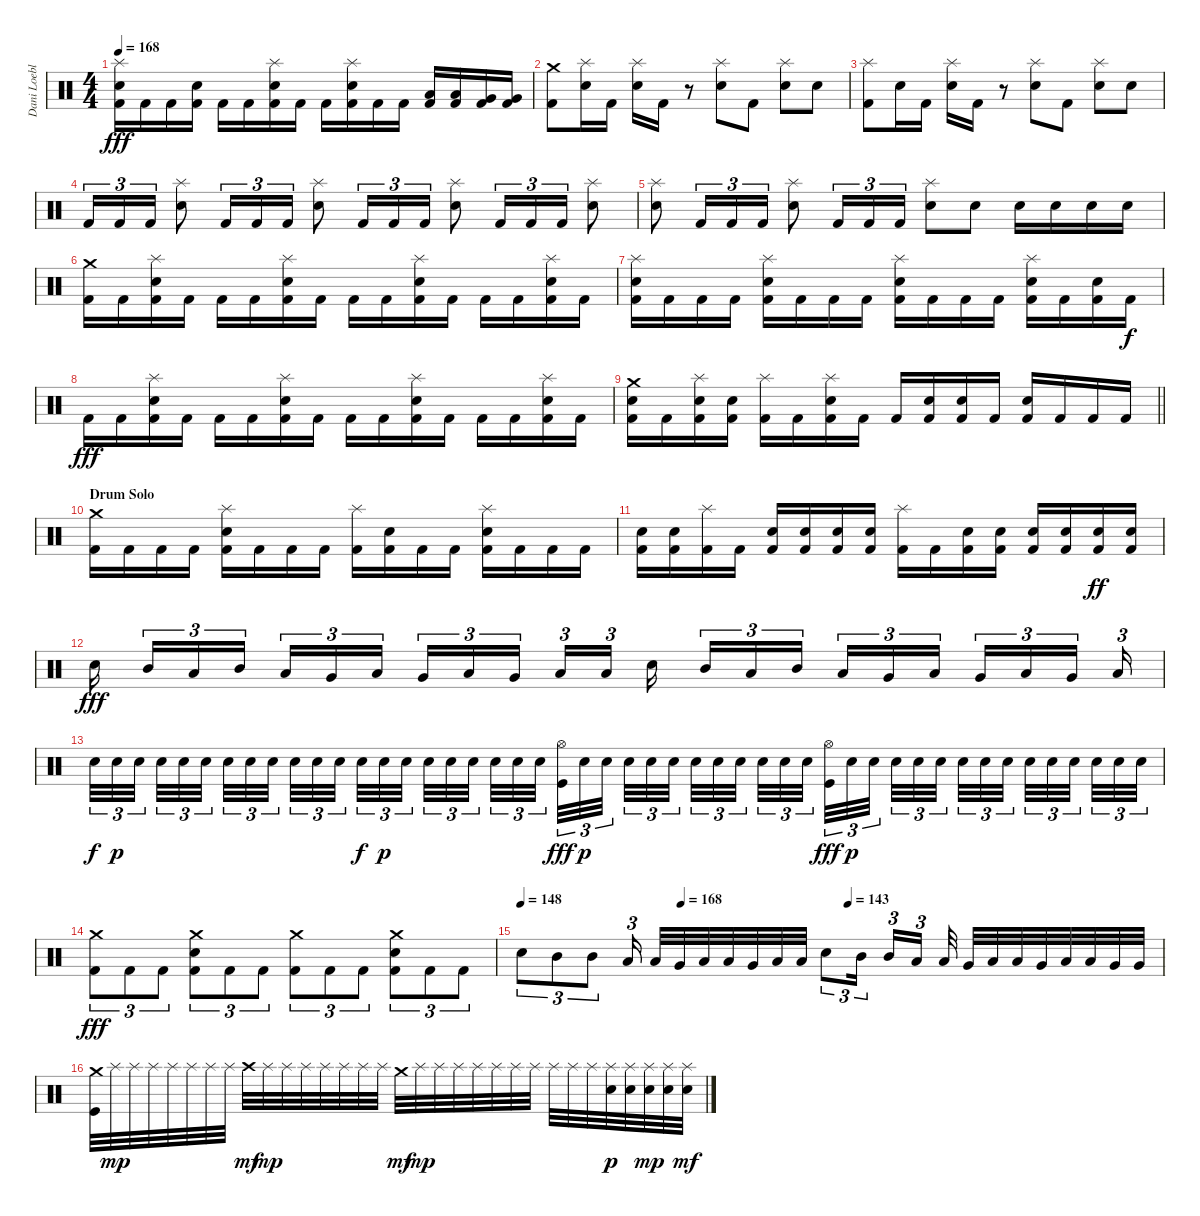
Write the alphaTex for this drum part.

\track ("Dani Loeble" "Dani Loebl") {instrument percussion}
\staff {score}
\articulation defaults
\ts (4 4)
\tempo 168
\clef neutral
\ks c
("Splash (hit)" "Electric Snare (hit)" "Kick (hit) 2").16{dy fff} "Kick (hit) 2".16 "Kick (hit) 2".16 ("Electric Snare (hit)" "Kick (hit) 2").16 "Kick (hit) 2".16 "Kick (hit) 2".16 ("Splash (hit)" "Electric Snare (hit)" "Kick (hit) 2").16 "Kick (hit) 2".16 "Kick (hit) 2".16 ("Splash (hit)" "Electric Snare (hit)" "Kick (hit) 2").16 "Kick (hit) 2".16 "Kick (hit) 2".16 ("Low Tom (hit)" "Kick (hit) 2").16 ("Low Tom (hit)" "Kick (hit) 2").16 ("Very Low Tom (hit)" "Kick (hit) 2").16 ("Very Low Tom (hit)" "Kick (hit) 2").16 |
("Crash medium (hit)" "Kick (hit) 2").8 ("Splash (hit)" "Electric Snare (hit)").16 "Kick (hit) 2".16 ("Splash (hit)" "Electric Snare (hit)").16 "Kick (hit) 2".16 r.8 ("Splash (hit)" "Electric Snare (hit)").8 "Kick (hit) 2".8 ("Splash (hit)" "Electric Snare (hit)").8 "Electric Snare (hit)".8 |
("Splash (hit)" "Kick (hit) 2").8 "Electric Snare (hit)".16 "Kick (hit) 2".16 ("Splash (hit)" "Electric Snare (hit)").16 "Kick (hit) 2".16 r.8 ("Splash (hit)" "Electric Snare (hit)").8 "Kick (hit) 2".8 ("Splash (hit)" "Electric Snare (hit)").8 "Electric Snare (hit)".8 |
"Kick (hit) 2".16{tu (3 2)} "Kick (hit) 2".16{tu (3 2)} "Kick (hit) 2".16{tu (3 2)} ("Splash (hit)" "Electric Snare (hit)").8 "Kick (hit) 2".16{tu (3 2)} "Kick (hit) 2".16{tu (3 2)} "Kick (hit) 2".16{tu (3 2)} ("Splash (hit)" "Electric Snare (hit)").8 "Kick (hit) 2".16{tu (3 2)} "Kick (hit) 2".16{tu (3 2)} "Kick (hit) 2".16{tu (3 2)} ("Splash (hit)" "Electric Snare (hit)").8 "Kick (hit) 2".16{tu (3 2)} "Kick (hit) 2".16{tu (3 2)} "Kick (hit) 2".16{tu (3 2)} ("Splash (hit)" "Electric Snare (hit)").8 |
("Splash (hit)" "Electric Snare (hit)").8 "Kick (hit) 2".16{tu (3 2)} "Kick (hit) 2".16{tu (3 2)} "Kick (hit) 2".16{tu (3 2)} ("Splash (hit)" "Electric Snare (hit)").8 "Kick (hit) 2".16{tu (3 2)} "Kick (hit) 2".16{tu (3 2)} "Kick (hit) 2".16{tu (3 2)} ("Splash (hit)" "Electric Snare (hit)").8 "Electric Snare (hit)".8 "Electric Snare (hit)".16 "Electric Snare (hit)".16 "Electric Snare (hit)".16 "Electric Snare (hit)".16 |
("Crash medium (hit)" "Kick (hit) 2").16 "Kick (hit) 2".16 ("Splash (hit)" "Electric Snare (hit)" "Kick (hit) 2").16 "Kick (hit) 2".16 "Kick (hit) 2".16 "Kick (hit) 2".16 ("Splash (hit)" "Electric Snare (hit)" "Kick (hit) 2").16 "Kick (hit) 2".16 "Kick (hit) 2".16 "Kick (hit) 2".16 ("Splash (hit)" "Electric Snare (hit)" "Kick (hit) 2").16 "Kick (hit) 2".16 "Kick (hit) 2".16 "Kick (hit) 2".16 ("Splash (hit)" "Electric Snare (hit)" "Kick (hit) 2").16 "Kick (hit) 2".16 |
("Splash (hit)" "Electric Snare (hit)" "Kick (hit) 2").16 "Kick (hit) 2".16 "Kick (hit) 2".16 "Kick (hit) 2".16 ("Splash (hit)" "Electric Snare (hit)" "Kick (hit) 2").16 "Kick (hit) 2".16 "Kick (hit) 2".16 "Kick (hit) 2".16 ("Splash (hit)" "Electric Snare (hit)" "Kick (hit) 2").16 "Kick (hit) 2".16 "Kick (hit) 2".16 "Kick (hit) 2".16 ("Splash (hit)" "Electric Snare (hit)" "Kick (hit) 2").16 "Kick (hit) 2".16 ("Electric Snare (hit)" "Kick (hit) 2").16 "Kick (hit) 2".16{dy f} |
"Kick (hit) 2".16{dy fff} "Kick (hit) 2".16 ("Splash (hit)" "Electric Snare (hit)" "Kick (hit) 2").16 "Kick (hit) 2".16 "Kick (hit) 2".16 "Kick (hit) 2".16 ("Splash (hit)" "Electric Snare (hit)" "Kick (hit) 2").16 "Kick (hit) 2".16 "Kick (hit) 2".16 "Kick (hit) 2".16 ("Splash (hit)" "Electric Snare (hit)" "Kick (hit) 2").16 "Kick (hit) 2".16 "Kick (hit) 2".16 "Kick (hit) 2".16 ("Splash (hit)" "Electric Snare (hit)" "Kick (hit) 2").16 "Kick (hit) 2".16 |
\barLineRight lightlight
("Crash medium (hit)" "Electric Snare (hit)" "Kick (hit) 2").16 "Kick (hit) 2".16 ("Splash (hit)" "Electric Snare (hit)" "Kick (hit) 2").16 ("Electric Snare (hit)" "Kick (hit) 2").16 ("Splash (hit)" "Kick (hit) 2").16 "Kick (hit) 2".16 ("Splash (hit)" "Electric Snare (hit)" "Kick (hit) 2").16 "Kick (hit) 2".16 "Kick (hit) 2".16 ("Electric Snare (hit)" "Kick (hit) 2").16 ("Electric Snare (hit)" "Kick (hit) 2").16 "Kick (hit) 2".16 ("Electric Snare (hit)" "Kick (hit) 2").16 "Kick (hit) 2".16 "Kick (hit) 2".16 "Kick (hit) 2".16 |
\section ("" "Drum Solo")
("Crash medium (hit)" "Kick (hit) 2").16 "Kick (hit) 2".16 "Kick (hit) 2".16 "Kick (hit) 2".16 ("Splash (hit)" "Electric Snare (hit)" "Kick (hit) 2").16 "Kick (hit) 2".16 "Kick (hit) 2".16 "Kick (hit) 2".16 ("Splash (hit)" "Kick (hit) 2").16 ("Electric Snare (hit)" "Kick (hit) 2").16 "Kick (hit) 2".16 "Kick (hit) 2".16 ("Splash (hit)" "Electric Snare (hit)" "Kick (hit) 2").16 "Kick (hit) 2".16 "Kick (hit) 2".16 "Kick (hit) 2".16 |
("Electric Snare (hit)" "Kick (hit) 2").16 ("Electric Snare (hit)" "Kick (hit) 2").16 ("Splash (hit)" "Kick (hit) 2").16 "Kick (hit) 2".16 ("Electric Snare (hit)" "Kick (hit) 2").16 ("Electric Snare (hit)" "Kick (hit) 2").16 ("Electric Snare (hit)" "Kick (hit) 2").16 ("Electric Snare (hit)" "Kick (hit) 2").16 ("Splash (hit)" "Kick (hit) 2").16 "Kick (hit) 2".16 ("Electric Snare (hit)" "Kick (hit) 2").16 ("Electric Snare (hit)" "Kick (hit) 2").16 ("Electric Snare (hit)" "Kick (hit) 2").16 ("Electric Snare (hit)" "Kick (hit) 2").16 ("Electric Snare (hit)" "Kick (hit) 2").16{dy ff} ("Electric Snare (hit)" "Kick (hit) 2").16 |
"Electric Snare (hit)".16{dy fff beam splitsecondary} "Mid Tom (hit)".16{tu (3 2)} "Low Tom (hit)".16{tu (3 2)} "Mid Tom (hit)".16{tu (3 2) beam splitsecondary} "Low Tom (hit)".16{tu (3 2)} "Very Low Tom (hit)".16{tu (3 2)} "Low Tom (hit)".16{tu (3 2) beam splitsecondary} "Very Low Tom (hit)".16{tu (3 2)} "Low Floor Tom (hit)".16{tu (3 2)} "Very Low Tom (hit)".16{tu (3 2) beam splitsecondary} "Low Floor Tom (hit)".16{tu (3 2)} "Low Floor Tom (hit)".16{tu (3 2)} "Electric Snare (hit)".16{beam splitsecondary} "Mid Tom (hit)".16{tu (3 2)} "Low Tom (hit)".16{tu (3 2)} "Mid Tom (hit)".16{tu (3 2) beam splitsecondary} "Low Tom (hit)".16{tu (3 2)} "Very Low Tom (hit)".16{tu (3 2)} "Low Tom (hit)".16{tu (3 2) beam splitsecondary} "Very Low Tom (hit)".16{tu (3 2)} "Low Floor Tom (hit)".16{tu (3 2)} "Very Low Tom (hit)".16{tu (3 2) beam splitsecondary} "Low Floor Tom (hit)".16{tu (3 2)} |
"Electric Snare (hit)".32{tu (3 2) dy f} "Electric Snare (hit)".32{tu (3 2) dy p} "Electric Snare (hit)".32{tu (3 2) beam splitsecondary} "Electric Snare (hit)".32{tu (3 2)} "Electric Snare (hit)".32{tu (3 2)} "Electric Snare (hit)".32{tu (3 2) beam splitsecondary} "Electric Snare (hit)".32{tu (3 2)} "Electric Snare (hit)".32{tu (3 2)} "Electric Snare (hit)".32{tu (3 2) beam splitsecondary} "Electric Snare (hit)".32{tu (3 2)} "Electric Snare (hit)".32{tu (3 2)} "Electric Snare (hit)".32{tu (3 2)} "Electric Snare (hit)".32{tu (3 2) dy f} "Electric Snare (hit)".32{tu (3 2) dy p} "Electric Snare (hit)".32{tu (3 2) beam splitsecondary} "Electric Snare (hit)".32{tu (3 2)} "Electric Snare (hit)".32{tu (3 2)} "Electric Snare (hit)".32{tu (3 2) beam splitsecondary} "Electric Snare (hit)".32{tu (3 2)} "Electric Snare (hit)".32{tu (3 2)} "Electric Snare (hit)".32{tu (3 2) beam splitsecondary} ("Hi-Hat (open)" "Kick (hit)").32{tu (3 2) dy fff} "Electric Snare (hit)".32{tu (3 2) dy p} "Electric Snare (hit)".32{tu (3 2)} "Electric Snare (hit)".32{tu (3 2)} "Electric Snare (hit)".32{tu (3 2)} "Electric Snare (hit)".32{tu (3 2) beam splitsecondary} "Electric Snare (hit)".32{tu (3 2)} "Electric Snare (hit)".32{tu (3 2)} "Electric Snare (hit)".32{tu (3 2) beam splitsecondary} "Electric Snare (hit)".32{tu (3 2)} "Electric Snare (hit)".32{tu (3 2)} "Electric Snare (hit)".32{tu (3 2) beam splitsecondary} ("Hi-Hat (open)" "Kick (hit)").32{tu (3 2) dy fff} "Electric Snare (hit)".32{tu (3 2) dy p} "Electric Snare (hit)".32{tu (3 2)} "Electric Snare (hit)".32{tu (3 2)} "Electric Snare (hit)".32{tu (3 2)} "Electric Snare (hit)".32{tu (3 2) beam splitsecondary} "Electric Snare (hit)".32{tu (3 2)} "Electric Snare (hit)".32{tu (3 2)} "Electric Snare (hit)".32{tu (3 2) beam splitsecondary} "Electric Snare (hit)".32{tu (3 2)} "Electric Snare (hit)".32{tu (3 2)} "Electric Snare (hit)".32{tu (3 2) beam splitsecondary} "Electric Snare (hit)".32{tu (3 2)} "Electric Snare (hit)".32{tu (3 2)} "Electric Snare (hit)".32{tu (3 2)} |
("Crash medium (hit)" "Kick (hit) 2").8{tu (3 2) dy fff} "Kick (hit) 2".8{tu (3 2)} "Kick (hit) 2".8{tu (3 2)} ("Crash medium (hit)" "Electric Snare (hit)" "Kick (hit) 2").8{tu (3 2)} "Kick (hit) 2".8{tu (3 2)} "Kick (hit) 2".8{tu (3 2)} ("Crash medium (hit)" "Kick (hit) 2").8{tu (3 2)} "Kick (hit) 2".8{tu (3 2)} "Kick (hit) 2".8{tu (3 2)} ("Crash medium (hit)" "Electric Snare (hit)" "Kick (hit) 2").8{tu (3 2)} "Kick (hit) 2".8{tu (3 2)} "Kick (hit) 2".8{tu (3 2)} |
\tempo 148
\tempo (168 0.25)
\tempo (143 0.5104166666666666)
"Electric Snare (hit)".8{tu (3 2)} "Mid Tom (hit)".8{tu (3 2)} "Mid Tom (hit)".8{tu (3 2)} "Low Tom (hit)".16{tu (3 2) beam splitsecondary} "Low Tom (hit)".32 "Very Low Tom (hit)".32 "Low Floor Tom (hit)".32 "Low Floor Tom (hit)".32 "Very Low Tom (hit)".32 "Low Floor Tom (hit)".32 "Low Floor Tom (hit)".32 "Electric Snare (hit)".8{tu (3 2)} "Mid Tom (hit)".16{tu (3 2) beam splitsecondary} "Mid Tom (hit)".16{tu (3 2)} "Low Tom (hit)".16{tu (3 2) beam splitsecondary} "Low Tom (hit)".32 "Very Low Tom (hit)".32 "Low Floor Tom (hit)".32 "Low Floor Tom (hit)".32 "Very Low Tom (hit)".32 "Low Floor Tom (hit)".32 "Low Floor Tom (hit)".32 "Very Low Tom (hit)".32 "Very Low Tom (hit)".32 |
("Crash medium (hit)" "Kick (hit)").32 "Splash (hit)".32{dy mp} "Splash (hit)".32 "Splash (hit)".32 "Splash (hit)".32 "Splash (hit)".32 "Splash (hit)".32 "Splash (hit)".32 "Crash high (hit)".32{dy mf} "Splash (hit)".32{dy mp} "Splash (hit)".32 "Splash (hit)".32 "Splash (hit)".32 "Splash (hit)".32 "Splash (hit)".32 "Splash (hit)".32 "Crash medium (hit)".32{dy mf} "Splash (hit)".32{dy mp} "Splash (hit)".32 "Splash (hit)".32 "Splash (hit)".32 "Splash (hit)".32 "Splash (hit)".32 "Splash (hit)".32 "Splash (hit)".32 "Splash (hit)".32 "Splash (hit)".32 ("Splash (hit)" "Electric Snare (hit)").32{dy p} ("Splash (hit)" "Electric Snare (hit)").32 ("Splash (hit)" "Electric Snare (hit)").32{dy mp} ("Splash (hit)" "Electric Snare (hit)").32 ("Splash (hit)" "Electric Snare (hit)").32{dy mf}
